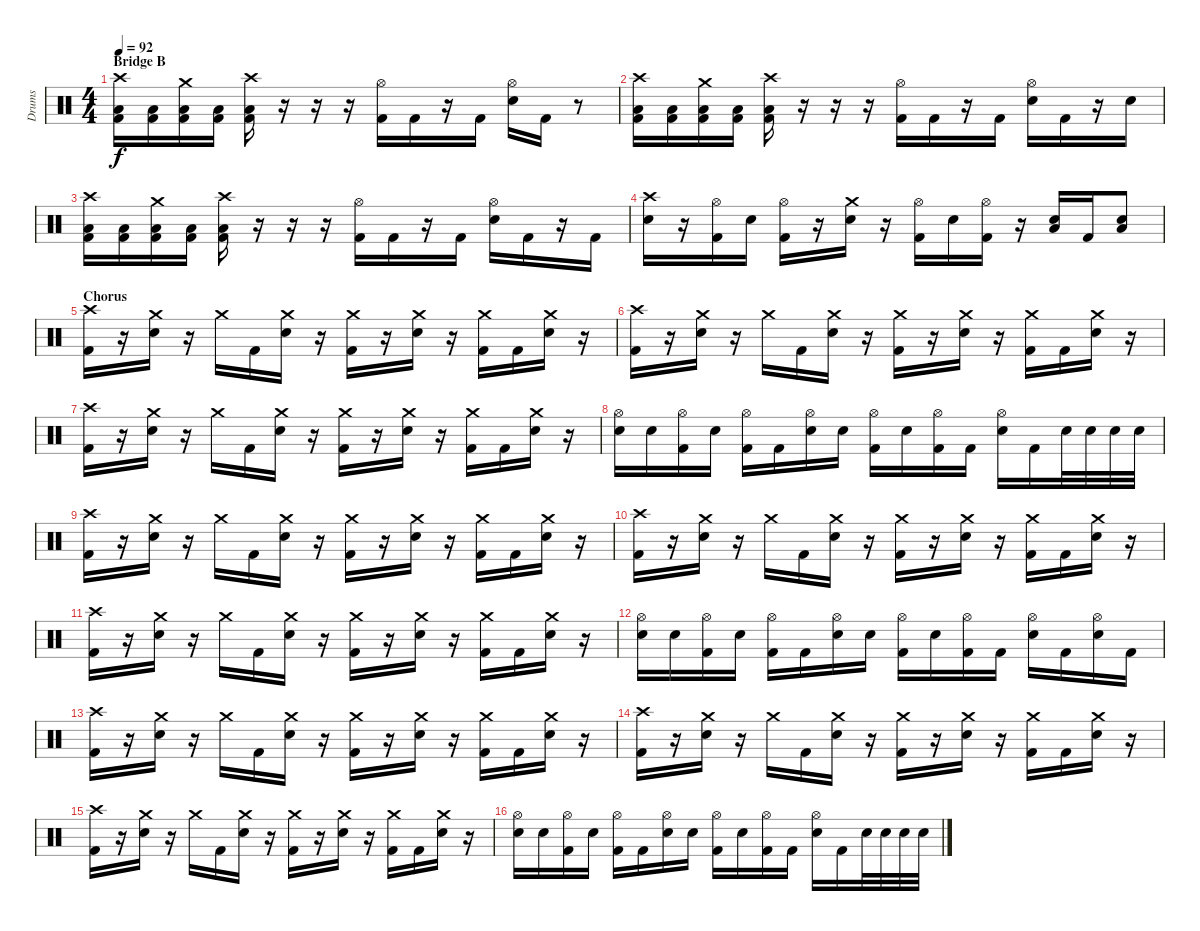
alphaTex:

\track ("Drums" "Drums") {instrument percussion}
\staff {score}
\articulation defaults
\ts (4 4)
\section ("" "Bridge B")
\tempo 92
\clef neutral
\ks c
("Crash high (hit)" "Low Floor Tom (hit)" "Kick (hit) 2").16{dy f} ("Low Floor Tom (hit)" "Kick (hit) 2").16 ("Crash medium (hit)" "Low Floor Tom (hit)" "Kick (hit) 2").16 ("Low Floor Tom (hit)" "Kick (hit) 2").16 ("Crash high (hit)" "Low Floor Tom (hit)" "Kick (hit) 2").16 r.16 r.16 r.16 ("Hi-Hat (open)" "Kick (hit) 2").16 "Kick (hit) 2".16 r.16 "Kick (hit) 2".16 ("Hi-Hat (open)" "Electric Snare (hit)").16 "Kick (hit) 2".16 r.8 |
("Crash high (hit)" "Low Floor Tom (hit)" "Kick (hit) 2").16 ("Low Floor Tom (hit)" "Kick (hit) 2").16 ("Crash medium (hit)" "Low Floor Tom (hit)" "Kick (hit) 2").16 ("Low Floor Tom (hit)" "Kick (hit) 2").16 ("Crash high (hit)" "Low Floor Tom (hit)" "Kick (hit) 2").16 r.16 r.16 r.16 ("Hi-Hat (open)" "Kick (hit) 2").16 "Kick (hit) 2".16 r.16 "Kick (hit) 2".16 ("Hi-Hat (open)" "Electric Snare (hit)").16 "Kick (hit) 2".16 r.16 "Electric Snare (hit)".16 |
("Crash high (hit)" "Low Floor Tom (hit)" "Kick (hit) 2").16 ("Low Floor Tom (hit)" "Kick (hit) 2").16 ("Crash medium (hit)" "Low Floor Tom (hit)" "Kick (hit) 2").16 ("Low Floor Tom (hit)" "Kick (hit) 2").16 ("Crash high (hit)" "Low Floor Tom (hit)" "Kick (hit) 2").16 r.16 r.16 r.16 ("Hi-Hat (open)" "Kick (hit) 2").16 "Kick (hit) 2".16 r.16 "Kick (hit) 2".16 ("Hi-Hat (open)" "Electric Snare (hit)").16 "Kick (hit) 2".16 r.16 "Kick (hit) 2".16 |
("Crash high (hit)" "Electric Snare (hit)").16 r.16 ("Hi-Hat (open)" "Kick (hit) 2").16 "Electric Snare (hit)".16 ("Hi-Hat (open)" "Kick (hit) 2").16 r.16 ("Crash medium (hit)" "Electric Snare (hit)").16 r.16 ("Hi-Hat (open)" "Kick (hit) 2").16 "Electric Snare (hit)".16 ("Hi-Hat (open)" "Kick (hit) 2").16 r.16 ("Electric Snare (hit)" "Low Floor Tom (hit)").16 "Kick (hit) 2".16 ("Electric Snare (hit)" "Low Floor Tom (hit)").8 |
\section ("" "Chorus")
("Crash high (hit)" "Kick (hit) 2").16 r.16 ("Crash medium (hit)" "Electric Snare (hit)").16 r.16 "Crash medium (hit)".16 "Kick (hit) 2".16 ("Crash medium (hit)" "Electric Snare (hit)").16 r.16 ("Crash medium (hit)" "Kick (hit) 2").16 r.16 ("Crash medium (hit)" "Electric Snare (hit)").16 r.16 ("Crash medium (hit)" "Kick (hit) 2").16 "Kick (hit) 2".16 ("Crash medium (hit)" "Electric Snare (hit)").16 r.16 |
("Crash high (hit)" "Kick (hit) 2").16 r.16 ("Crash medium (hit)" "Electric Snare (hit)").16 r.16 "Crash medium (hit)".16 "Kick (hit) 2".16 ("Crash medium (hit)" "Electric Snare (hit)").16 r.16 ("Crash medium (hit)" "Kick (hit) 2").16 r.16 ("Crash medium (hit)" "Electric Snare (hit)").16 r.16 ("Crash medium (hit)" "Kick (hit) 2").16 "Kick (hit) 2".16 ("Crash medium (hit)" "Electric Snare (hit)").16 r.16 |
("Crash high (hit)" "Kick (hit) 2").16 r.16 ("Crash medium (hit)" "Electric Snare (hit)").16 r.16 "Crash medium (hit)".16 "Kick (hit) 2".16 ("Crash medium (hit)" "Electric Snare (hit)").16 r.16 ("Crash medium (hit)" "Kick (hit) 2").16 r.16 ("Crash medium (hit)" "Electric Snare (hit)").16 r.16 ("Crash medium (hit)" "Kick (hit) 2").16 "Kick (hit) 2".16 ("Crash medium (hit)" "Electric Snare (hit)").16 r.16 |
("Hi-Hat (open)" "Electric Snare (hit)").16 "Electric Snare (hit)".16 ("Hi-Hat (open)" "Kick (hit) 2").16 "Electric Snare (hit)".16 ("Hi-Hat (open)" "Kick (hit) 2").16 "Kick (hit) 2".16 ("Hi-Hat (open)" "Electric Snare (hit)").16 "Electric Snare (hit)".16 ("Hi-Hat (open)" "Kick (hit) 2").16 "Electric Snare (hit)".16 ("Hi-Hat (open)" "Kick (hit) 2").16 "Kick (hit) 2".16 ("Hi-Hat (open)" "Electric Snare (hit)").16 "Kick (hit) 2".16 "Electric Snare (hit)".32 "Electric Snare (hit)".32 "Electric Snare (hit)".32 "Electric Snare (hit)".32 |
("Crash high (hit)" "Kick (hit) 2").16 r.16 ("Crash medium (hit)" "Electric Snare (hit)").16 r.16 "Crash medium (hit)".16 "Kick (hit) 2".16 ("Crash medium (hit)" "Electric Snare (hit)").16 r.16 ("Crash medium (hit)" "Kick (hit) 2").16 r.16 ("Crash medium (hit)" "Electric Snare (hit)").16 r.16 ("Crash medium (hit)" "Kick (hit) 2").16 "Kick (hit) 2".16 ("Crash medium (hit)" "Electric Snare (hit)").16 r.16 |
("Crash high (hit)" "Kick (hit) 2").16 r.16 ("Crash medium (hit)" "Electric Snare (hit)").16 r.16 "Crash medium (hit)".16 "Kick (hit) 2".16 ("Crash medium (hit)" "Electric Snare (hit)").16 r.16 ("Crash medium (hit)" "Kick (hit) 2").16 r.16 ("Crash medium (hit)" "Electric Snare (hit)").16 r.16 ("Crash medium (hit)" "Kick (hit) 2").16 "Kick (hit) 2".16 ("Crash medium (hit)" "Electric Snare (hit)").16 r.16 |
("Crash high (hit)" "Kick (hit) 2").16 r.16 ("Crash medium (hit)" "Electric Snare (hit)").16 r.16 "Crash medium (hit)".16 "Kick (hit) 2".16 ("Crash medium (hit)" "Electric Snare (hit)").16 r.16 ("Crash medium (hit)" "Kick (hit) 2").16 r.16 ("Crash medium (hit)" "Electric Snare (hit)").16 r.16 ("Crash medium (hit)" "Kick (hit) 2").16 "Kick (hit) 2".16 ("Crash medium (hit)" "Electric Snare (hit)").16 r.16 |
("Hi-Hat (open)" "Electric Snare (hit)").16 "Electric Snare (hit)".16 ("Hi-Hat (open)" "Kick (hit) 2").16 "Electric Snare (hit)".16 ("Hi-Hat (open)" "Kick (hit) 2").16 "Kick (hit) 2".16 ("Hi-Hat (open)" "Electric Snare (hit)").16 "Electric Snare (hit)".16 ("Hi-Hat (open)" "Kick (hit) 2").16 "Electric Snare (hit)".16 ("Hi-Hat (open)" "Kick (hit) 2").16 "Kick (hit) 2".16 ("Hi-Hat (open)" "Electric Snare (hit)").16 "Kick (hit) 2".16 ("Hi-Hat (open)" "Electric Snare (hit)").16 "Kick (hit) 2".16 |
("Crash high (hit)" "Kick (hit) 2").16 r.16 ("Crash medium (hit)" "Electric Snare (hit)").16 r.16 "Crash medium (hit)".16 "Kick (hit) 2".16 ("Crash medium (hit)" "Electric Snare (hit)").16 r.16 ("Crash medium (hit)" "Kick (hit) 2").16 r.16 ("Crash medium (hit)" "Electric Snare (hit)").16 r.16 ("Crash medium (hit)" "Kick (hit) 2").16 "Kick (hit) 2".16 ("Crash medium (hit)" "Electric Snare (hit)").16 r.16 |
("Crash high (hit)" "Kick (hit) 2").16 r.16 ("Crash medium (hit)" "Electric Snare (hit)").16 r.16 "Crash medium (hit)".16 "Kick (hit) 2".16 ("Crash medium (hit)" "Electric Snare (hit)").16 r.16 ("Crash medium (hit)" "Kick (hit) 2").16 r.16 ("Crash medium (hit)" "Electric Snare (hit)").16 r.16 ("Crash medium (hit)" "Kick (hit) 2").16 "Kick (hit) 2".16 ("Crash medium (hit)" "Electric Snare (hit)").16 r.16 |
("Crash high (hit)" "Kick (hit) 2").16 r.16 ("Crash medium (hit)" "Electric Snare (hit)").16 r.16 "Crash medium (hit)".16 "Kick (hit) 2".16 ("Crash medium (hit)" "Electric Snare (hit)").16 r.16 ("Crash medium (hit)" "Kick (hit) 2").16 r.16 ("Crash medium (hit)" "Electric Snare (hit)").16 r.16 ("Crash medium (hit)" "Kick (hit) 2").16 "Kick (hit) 2".16 ("Crash medium (hit)" "Electric Snare (hit)").16 r.16 |
("Hi-Hat (open)" "Electric Snare (hit)").16 "Electric Snare (hit)".16 ("Hi-Hat (open)" "Kick (hit) 2").16 "Electric Snare (hit)".16 ("Hi-Hat (open)" "Kick (hit) 2").16 "Kick (hit) 2".16 ("Hi-Hat (open)" "Electric Snare (hit)").16 "Electric Snare (hit)".16 ("Hi-Hat (open)" "Kick (hit) 2").16 "Electric Snare (hit)".16 ("Hi-Hat (open)" "Kick (hit) 2").16 "Kick (hit) 2".16 ("Hi-Hat (open)" "Electric Snare (hit)").16 "Kick (hit) 2".16 "Electric Snare (hit)".32 "Electric Snare (hit)".32 "Electric Snare (hit)".32 "Electric Snare (hit)".32
